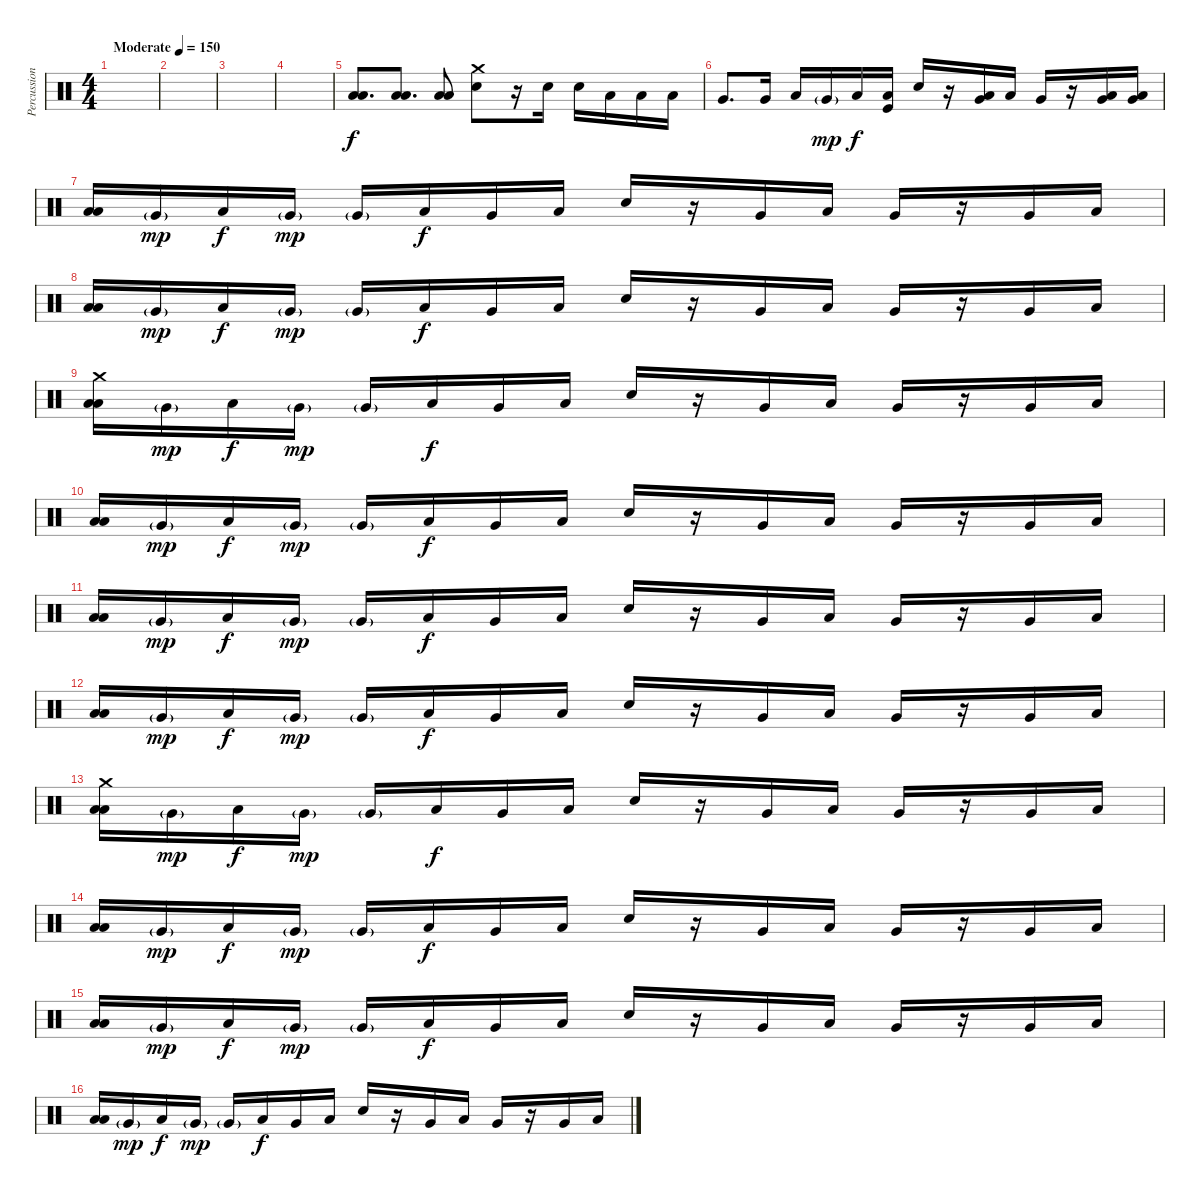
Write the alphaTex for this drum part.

\track ("Percussion" "Percussion") {instrument percussion}
\staff {score}
\articulation defaults
\ts (4 4)
\tempo (150 "Moderate")
\clef neutral
\ks c
|
|
|
|
("Low Tom (hit)" "Low Floor Tom (hit)").8{d} ("Low Tom (hit)" "Low Floor Tom (hit)").8{d} ("Low Tom (hit)" "Low Floor Tom (hit)").8 ("Crash medium (hit)" "Electric Snare (hit)").8 r.16 "Electric Snare (hit)".16 "Electric Snare (hit)".16 "Low Tom (hit)".16 "Low Tom (hit)".16 "Low Tom (hit)".16 |
"Very Low Tom (hit)".8{d} "Very Low Tom (hit)".16 "Low Tom (hit)".16 "Very Low Tom (hit)"{g}.16{dy mp} "Low Tom (hit)".16{dy f} ("Low Floor Tom (hit)" "Kick (hit)").16 "Electric Snare (hit)".16 r.16 ("Very Low Tom (hit)" "Low Floor Tom (hit)").16 "Low Tom (hit)".16 "Very Low Tom (hit)".16 r.16 ("Very Low Tom (hit)" "Low Floor Tom (hit)").16 ("Very Low Tom (hit)" "Low Floor Tom (hit)").16 |
("Low Tom (hit)" "Low Floor Tom (hit)").16 "Very Low Tom (hit)"{g}.16{dy mp} "Low Tom (hit)".16{dy f} "Very Low Tom (hit)"{g}.16{dy mp} "Very Low Tom (hit)"{g}.16 "Low Floor Tom (hit)".16{dy f} "Very Low Tom (hit)".16 "Low Floor Tom (hit)".16 "Electric Snare (hit)".16 r.16 "Very Low Tom (hit)".16 "Low Tom (hit)".16 "Very Low Tom (hit)".16 r.16 "Very Low Tom (hit)".16 "Low Tom (hit)".16 |
("Low Tom (hit)" "Low Floor Tom (hit)").16 "Very Low Tom (hit)"{g}.16{dy mp} "Low Tom (hit)".16{dy f} "Very Low Tom (hit)"{g}.16{dy mp} "Very Low Tom (hit)"{g}.16 "Low Floor Tom (hit)".16{dy f} "Very Low Tom (hit)".16 "Low Floor Tom (hit)".16 "Electric Snare (hit)".16 r.16 "Very Low Tom (hit)".16 "Low Tom (hit)".16 "Very Low Tom (hit)".16 r.16 "Very Low Tom (hit)".16 "Low Tom (hit)".16 |
("Crash medium (hit)" "Low Tom (hit)" "Low Floor Tom (hit)").16 "Very Low Tom (hit)"{g}.16{dy mp} "Low Tom (hit)".16{dy f} "Very Low Tom (hit)"{g}.16{dy mp} "Very Low Tom (hit)"{g}.16 "Low Floor Tom (hit)".16{dy f} "Very Low Tom (hit)".16 "Low Floor Tom (hit)".16 "Electric Snare (hit)".16 r.16 "Very Low Tom (hit)".16 "Low Tom (hit)".16 "Very Low Tom (hit)".16 r.16 "Very Low Tom (hit)".16 "Low Tom (hit)".16 |
("Low Tom (hit)" "Low Floor Tom (hit)").16 "Very Low Tom (hit)"{g}.16{dy mp} "Low Tom (hit)".16{dy f} "Very Low Tom (hit)"{g}.16{dy mp} "Very Low Tom (hit)"{g}.16 "Low Floor Tom (hit)".16{dy f} "Very Low Tom (hit)".16 "Low Floor Tom (hit)".16 "Electric Snare (hit)".16 r.16 "Very Low Tom (hit)".16 "Low Tom (hit)".16 "Very Low Tom (hit)".16 r.16 "Very Low Tom (hit)".16 "Low Tom (hit)".16 |
("Low Tom (hit)" "Low Floor Tom (hit)").16 "Very Low Tom (hit)"{g}.16{dy mp} "Low Tom (hit)".16{dy f} "Very Low Tom (hit)"{g}.16{dy mp} "Very Low Tom (hit)"{g}.16 "Low Floor Tom (hit)".16{dy f} "Very Low Tom (hit)".16 "Low Floor Tom (hit)".16 "Electric Snare (hit)".16 r.16 "Very Low Tom (hit)".16 "Low Tom (hit)".16 "Very Low Tom (hit)".16 r.16 "Very Low Tom (hit)".16 "Low Tom (hit)".16 |
("Low Tom (hit)" "Low Floor Tom (hit)").16 "Very Low Tom (hit)"{g}.16{dy mp} "Low Tom (hit)".16{dy f} "Very Low Tom (hit)"{g}.16{dy mp} "Very Low Tom (hit)"{g}.16 "Low Floor Tom (hit)".16{dy f} "Very Low Tom (hit)".16 "Low Floor Tom (hit)".16 "Electric Snare (hit)".16 r.16 "Very Low Tom (hit)".16 "Low Tom (hit)".16 "Very Low Tom (hit)".16 r.16 "Very Low Tom (hit)".16 "Low Tom (hit)".16 |
("Crash medium (hit)" "Low Tom (hit)" "Low Floor Tom (hit)").16 "Very Low Tom (hit)"{g}.16{dy mp} "Low Tom (hit)".16{dy f} "Very Low Tom (hit)"{g}.16{dy mp} "Very Low Tom (hit)"{g}.16 "Low Floor Tom (hit)".16{dy f} "Very Low Tom (hit)".16 "Low Floor Tom (hit)".16 "Electric Snare (hit)".16 r.16 "Very Low Tom (hit)".16 "Low Tom (hit)".16 "Very Low Tom (hit)".16 r.16 "Very Low Tom (hit)".16 "Low Tom (hit)".16 |
("Low Tom (hit)" "Low Floor Tom (hit)").16 "Very Low Tom (hit)"{g}.16{dy mp} "Low Tom (hit)".16{dy f} "Very Low Tom (hit)"{g}.16{dy mp} "Very Low Tom (hit)"{g}.16 "Low Floor Tom (hit)".16{dy f} "Very Low Tom (hit)".16 "Low Floor Tom (hit)".16 "Electric Snare (hit)".16 r.16 "Very Low Tom (hit)".16 "Low Tom (hit)".16 "Very Low Tom (hit)".16 r.16 "Very Low Tom (hit)".16 "Low Tom (hit)".16 |
("Low Tom (hit)" "Low Floor Tom (hit)").16 "Very Low Tom (hit)"{g}.16{dy mp} "Low Tom (hit)".16{dy f} "Very Low Tom (hit)"{g}.16{dy mp} "Very Low Tom (hit)"{g}.16 "Low Floor Tom (hit)".16{dy f} "Very Low Tom (hit)".16 "Low Floor Tom (hit)".16 "Electric Snare (hit)".16 r.16 "Very Low Tom (hit)".16 "Low Tom (hit)".16 "Very Low Tom (hit)".16 r.16 "Very Low Tom (hit)".16 "Low Tom (hit)".16 |
("Low Tom (hit)" "Low Floor Tom (hit)").16 "Very Low Tom (hit)"{g}.16{dy mp} "Low Tom (hit)".16{dy f} "Very Low Tom (hit)"{g}.16{dy mp} "Very Low Tom (hit)"{g}.16 "Low Floor Tom (hit)".16{dy f} "Very Low Tom (hit)".16 "Low Floor Tom (hit)".16 "Electric Snare (hit)".16 r.16 "Very Low Tom (hit)".16 "Low Tom (hit)".16 "Very Low Tom (hit)".16 r.16 "Very Low Tom (hit)".16 "Low Tom (hit)".16
